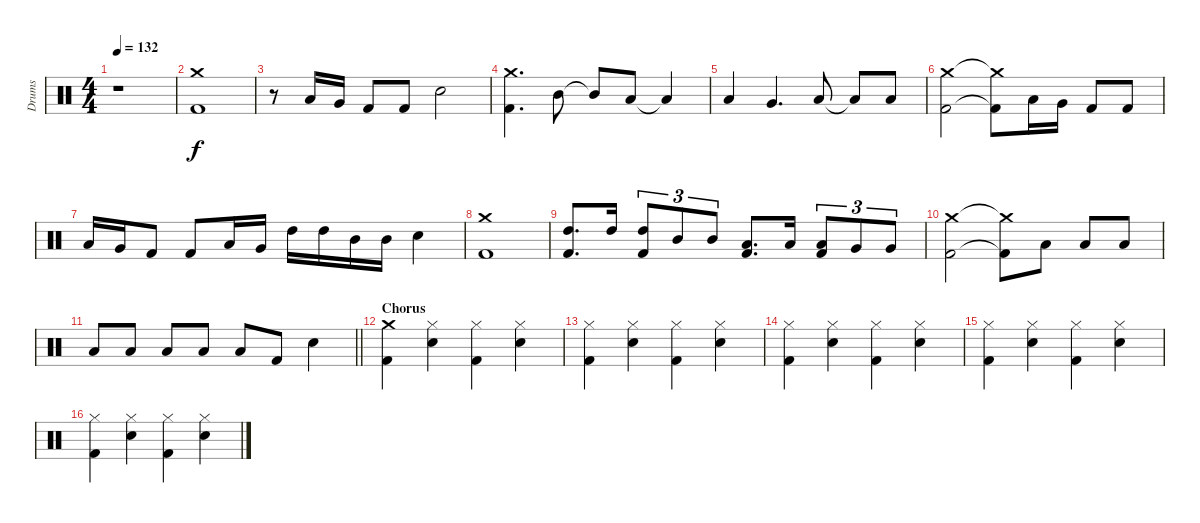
\track ("Drums" "Drums") {instrument percussion}
\staff {score}
\articulation defaults
\ts (4 4)
\tempo 132
\clef neutral
\ks c
r.1{dy f} |
("Crash medium (hit)" "Kick (hit) 2").1 |
r.8 "Low Floor Tom (hit)".16 "Very Low Tom (hit)".16 "Kick (hit) 2".8 "Kick (hit) 2".8 "Snare (hit) 2".2 |
("Crash medium (hit)" "Kick (hit) 2").4{d} "Mid Tom (hit)".8 "Mid Tom (hit)"{t}.8 "Low Tom (hit)".8 "Low Tom (hit)"{t}.4 |
"Low Tom (hit)".4 "Very Low Tom (hit)".4{d} "Low Floor Tom (hit)".8 "Low Floor Tom (hit)"{t}.8 "Low Floor Tom (hit)".8 |
("Crash medium (hit)" "Kick (hit) 2").2 ("Crash medium (hit)"{t} "Kick (hit) 2"{t}).8 "Low Floor Tom (hit)".16 "Very Low Tom (hit)".16 "Kick (hit) 2".8 "Kick (hit) 2".8 |
"Low Floor Tom (hit)".16 "Very Low Tom (hit)".16 "Kick (hit) 2".8 "Kick (hit) 2".8 "Low Floor Tom (hit)".16 "Very Low Tom (hit)".16 "High Tom (hit)".16 "High Tom (hit)".16 "Mid Tom (hit)".16 "Mid Tom (hit)".16 "Snare (hit) 2".4 |
("Crash medium (hit)" "Kick (hit) 2").1 |
("High Tom (hit)" "Kick (hit) 2").8{d} "High Tom (hit)".16 ("High Tom (hit)" "Kick (hit) 2").8{tu (3 2)} "Mid Tom (hit)".8{tu (3 2)} "Mid Tom (hit)".8{tu (3 2)} ("Low Tom (hit)" "Kick (hit) 2").8{d} "Low Tom (hit)".16 ("Low Tom (hit)" "Kick (hit) 2").8{tu (3 2)} "Very Low Tom (hit)".8{tu (3 2)} "Very Low Tom (hit)".8{tu (3 2)} |
("Crash medium (hit)" "Kick (hit) 2").2 ("Crash medium (hit)"{t} "Kick (hit) 2"{t}).8 "Low Floor Tom (hit)".8 "Low Floor Tom (hit)".8 "Low Floor Tom (hit)".8 |
\barLineRight lightlight "Low Floor Tom (hit)".8 "Low Floor Tom (hit)".8 "Low Floor Tom (hit)".8 "Low Floor Tom (hit)".8 "Low Floor Tom (hit)".8 "Kick (hit) 2".8 "Snare (hit) 2".4
|
\section ("" "Chorus")
("Crash medium (hit)" "Kick (hit) 2").4 ("Hi-Hat (closed)" "Snare (hit) 2").4 ("Hi-Hat (closed)" "Kick (hit) 2").4 ("Hi-Hat (closed)" "Snare (hit) 2").4 |
("Hi-Hat (closed)" "Kick (hit) 2").4 ("Hi-Hat (closed)" "Snare (hit) 2").4 ("Hi-Hat (closed)" "Kick (hit) 2").4 ("Hi-Hat (closed)" "Snare (hit) 2").4 |
("Hi-Hat (closed)" "Kick (hit) 2").4 ("Hi-Hat (closed)" "Snare (hit) 2").4 ("Hi-Hat (closed)" "Kick (hit) 2").4 ("Hi-Hat (closed)" "Snare (hit) 2").4 |
("Hi-Hat (closed)" "Kick (hit) 2").4 ("Hi-Hat (closed)" "Snare (hit) 2").4 ("Hi-Hat (closed)" "Kick (hit) 2").4 ("Hi-Hat (closed)" "Snare (hit) 2").4 |
("Hi-Hat (closed)" "Kick (hit) 2").4 ("Hi-Hat (closed)" "Snare (hit) 2").4 ("Hi-Hat (closed)" "Kick (hit) 2").4 ("Hi-Hat (closed)" "Snare (hit) 2").4
